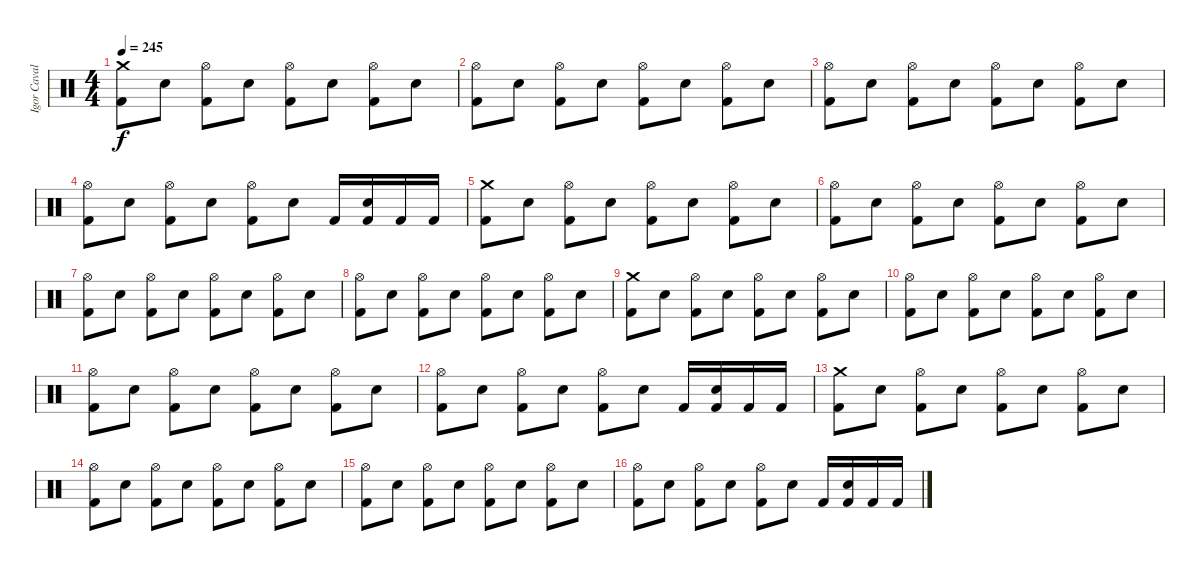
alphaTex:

\track ("Igor Cavalera" "Igor Caval") {instrument percussion}
\staff {score}
\articulation defaults
\ts (4 4)
\tempo 245
\clef neutral
\ks c
("Crash medium (hit)" "Kick (hit) 2").8{dy f} "Electric Snare (hit)".8 ("Hi-Hat (open)" "Kick (hit) 2").8 "Electric Snare (hit)".8 ("Hi-Hat (open)" "Kick (hit) 2").8 "Electric Snare (hit)".8 ("Hi-Hat (open)" "Kick (hit) 2").8 "Electric Snare (hit)".8 |
("Hi-Hat (open)" "Kick (hit) 2").8 "Electric Snare (hit)".8 ("Hi-Hat (open)" "Kick (hit) 2").8 "Electric Snare (hit)".8 ("Hi-Hat (open)" "Kick (hit) 2").8 "Electric Snare (hit)".8 ("Hi-Hat (open)" "Kick (hit) 2").8 "Electric Snare (hit)".8 |
("Hi-Hat (open)" "Kick (hit) 2").8 "Electric Snare (hit)".8 ("Hi-Hat (open)" "Kick (hit) 2").8 "Electric Snare (hit)".8 ("Hi-Hat (open)" "Kick (hit) 2").8 "Electric Snare (hit)".8 ("Hi-Hat (open)" "Kick (hit) 2").8 "Electric Snare (hit)".8 |
("Hi-Hat (open)" "Kick (hit) 2").8 "Electric Snare (hit)".8 ("Hi-Hat (open)" "Kick (hit) 2").8 "Electric Snare (hit)".8 ("Hi-Hat (open)" "Kick (hit) 2").8 "Electric Snare (hit)".8 "Kick (hit) 2".16 ("Kick (hit) 2" "Electric Snare (hit)").16 "Kick (hit) 2".16 "Kick (hit) 2".16 |
("Crash medium (hit)" "Kick (hit) 2").8 "Electric Snare (hit)".8 ("Hi-Hat (open)" "Kick (hit) 2").8 "Electric Snare (hit)".8 ("Hi-Hat (open)" "Kick (hit) 2").8 "Electric Snare (hit)".8 ("Hi-Hat (open)" "Kick (hit) 2").8 "Electric Snare (hit)".8 |
("Hi-Hat (open)" "Kick (hit) 2").8 "Electric Snare (hit)".8 ("Hi-Hat (open)" "Kick (hit) 2").8 "Electric Snare (hit)".8 ("Hi-Hat (open)" "Kick (hit) 2").8 "Electric Snare (hit)".8 ("Hi-Hat (open)" "Kick (hit) 2").8 "Electric Snare (hit)".8 |
("Hi-Hat (open)" "Kick (hit) 2").8 "Electric Snare (hit)".8 ("Hi-Hat (open)" "Kick (hit) 2").8 "Electric Snare (hit)".8 ("Hi-Hat (open)" "Kick (hit) 2").8 "Electric Snare (hit)".8 ("Hi-Hat (open)" "Kick (hit) 2").8 "Electric Snare (hit)".8 |
("Hi-Hat (open)" "Kick (hit) 2").8 "Electric Snare (hit)".8 ("Hi-Hat (open)" "Kick (hit) 2").8 "Electric Snare (hit)".8 ("Hi-Hat (open)" "Kick (hit) 2").8 "Electric Snare (hit)".8 ("Hi-Hat (open)" "Kick (hit) 2").8 "Electric Snare (hit)".8 |
("Crash medium (hit)" "Kick (hit) 2").8 "Electric Snare (hit)".8 ("Hi-Hat (open)" "Kick (hit) 2").8 "Electric Snare (hit)".8 ("Hi-Hat (open)" "Kick (hit) 2").8 "Electric Snare (hit)".8 ("Hi-Hat (open)" "Kick (hit) 2").8 "Electric Snare (hit)".8 |
("Hi-Hat (open)" "Kick (hit) 2").8 "Electric Snare (hit)".8 ("Hi-Hat (open)" "Kick (hit) 2").8 "Electric Snare (hit)".8 ("Hi-Hat (open)" "Kick (hit) 2").8 "Electric Snare (hit)".8 ("Hi-Hat (open)" "Kick (hit) 2").8 "Electric Snare (hit)".8 |
("Hi-Hat (open)" "Kick (hit) 2").8 "Electric Snare (hit)".8 ("Hi-Hat (open)" "Kick (hit) 2").8 "Electric Snare (hit)".8 ("Hi-Hat (open)" "Kick (hit) 2").8 "Electric Snare (hit)".8 ("Hi-Hat (open)" "Kick (hit) 2").8 "Electric Snare (hit)".8 |
("Hi-Hat (open)" "Kick (hit) 2").8 "Electric Snare (hit)".8 ("Hi-Hat (open)" "Kick (hit) 2").8 "Electric Snare (hit)".8 ("Hi-Hat (open)" "Kick (hit) 2").8 "Electric Snare (hit)".8 "Kick (hit) 2".16 ("Kick (hit) 2" "Electric Snare (hit)").16 "Kick (hit) 2".16 "Kick (hit) 2".16 |
("Crash medium (hit)" "Kick (hit) 2").8 "Electric Snare (hit)".8 ("Hi-Hat (open)" "Kick (hit) 2").8 "Electric Snare (hit)".8 ("Hi-Hat (open)" "Kick (hit) 2").8 "Electric Snare (hit)".8 ("Hi-Hat (open)" "Kick (hit) 2").8 "Electric Snare (hit)".8 |
("Hi-Hat (open)" "Kick (hit) 2").8 "Electric Snare (hit)".8 ("Hi-Hat (open)" "Kick (hit) 2").8 "Electric Snare (hit)".8 ("Hi-Hat (open)" "Kick (hit) 2").8 "Electric Snare (hit)".8 ("Hi-Hat (open)" "Kick (hit) 2").8 "Electric Snare (hit)".8 |
("Hi-Hat (open)" "Kick (hit) 2").8 "Electric Snare (hit)".8 ("Hi-Hat (open)" "Kick (hit) 2").8 "Electric Snare (hit)".8 ("Hi-Hat (open)" "Kick (hit) 2").8 "Electric Snare (hit)".8 ("Hi-Hat (open)" "Kick (hit) 2").8 "Electric Snare (hit)".8 |
("Hi-Hat (open)" "Kick (hit) 2").8 "Electric Snare (hit)".8 ("Hi-Hat (open)" "Kick (hit) 2").8 "Electric Snare (hit)".8 ("Hi-Hat (open)" "Kick (hit) 2").8 "Electric Snare (hit)".8 "Kick (hit) 2".16 ("Kick (hit) 2" "Electric Snare (hit)").16 "Kick (hit) 2".16 "Kick (hit) 2".16
